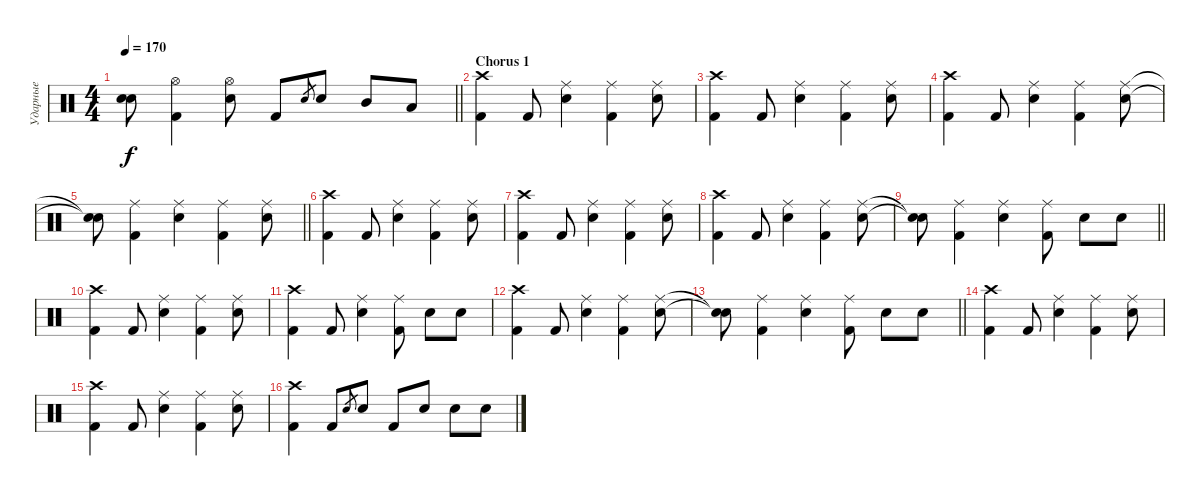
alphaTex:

\track ("Ударные" "Ударные") {instrument percussion}
\staff {score}
\articulation defaults
\ts (4 4)
\tempo 170
\clef neutral
\barLineRight lightlight
\ks c
("Snare (hit)"{t} "Snare (hit)"{t}).8{dy f} ("Hi-Hat (open)" "Kick (hit) 2").4 ("Hi-Hat (open)" "Snare (hit) 2").8 "Kick (hit) 2".8 "Snare (hit) 2".8{gr} "Snare (hit) 2".8 "Mid Tom (hit)".8 "Low Tom (hit)".8 |
\section ("" "Chorus 1")
("Crash high (hit)" "Kick (hit) 2").4 "Kick (hit) 2".8 ("Ride (middle)" "Snare (hit) 2").4 ("Ride (middle)" "Kick (hit) 2").4 ("Ride (middle)" "Snare (hit) 2").8 |
("Crash high (hit)" "Kick (hit) 2").4 "Kick (hit) 2".8 ("Ride (middle)" "Snare (hit) 2").4 ("Ride (middle)" "Kick (hit) 2").4 ("Ride (middle)" "Snare (hit) 2").8 |
("Crash high (hit)" "Kick (hit) 2").4 "Kick (hit) 2".8 ("Ride (middle)" "Snare (hit) 2").4 ("Ride (middle)" "Kick (hit) 2").4 ("Ride (middle)" "Snare (hit) 2").8 |
\barLineRight lightlight
("Snare (hit)"{t} "Snare (hit)"{t}).8 ("Ride (middle)" "Kick (hit) 2").4 ("Ride (middle)" "Snare (hit) 2").4 ("Ride (middle)" "Kick (hit) 2").4 ("Ride (middle)" "Snare (hit) 2").8 |
("Crash high (hit)" "Kick (hit) 2").4 "Kick (hit) 2".8 ("Ride (middle)" "Snare (hit) 2").4 ("Ride (middle)" "Kick (hit) 2").4 ("Ride (middle)" "Snare (hit) 2").8 |
("Crash high (hit)" "Kick (hit) 2").4 "Kick (hit) 2".8 ("Ride (middle)" "Snare (hit) 2").4 ("Ride (middle)" "Kick (hit) 2").4 ("Ride (middle)" "Snare (hit) 2").8 |
("Crash high (hit)" "Kick (hit) 2").4 "Kick (hit) 2".8 ("Ride (middle)" "Snare (hit) 2").4 ("Ride (middle)" "Kick (hit) 2").4 ("Ride (middle)" "Snare (hit) 2").8 |
\barLineRight lightlight
("Snare (hit)"{t} "Snare (hit)"{t}).8 ("Ride (middle)" "Kick (hit) 2").4 ("Ride (middle)" "Snare (hit) 2").4 ("Kick (hit) 2" "Ride (middle)").8 "Snare (hit) 2".8 "Snare (hit) 2".8 |
("Crash high (hit)" "Kick (hit) 2").4 "Kick (hit) 2".8 ("Ride (middle)" "Snare (hit) 2").4 ("Ride (middle)" "Kick (hit) 2").4 ("Ride (middle)" "Snare (hit) 2").8 |
("Crash high (hit)" "Kick (hit) 2").4 "Kick (hit) 2".8 ("Ride (middle)" "Snare (hit) 2").4 ("Ride (middle)" "Kick (hit) 2").8 "Snare (hit) 2".8 "Snare (hit) 2".8 |
("Crash high (hit)" "Kick (hit) 2").4 "Kick (hit) 2".8 ("Ride (middle)" "Snare (hit) 2").4 ("Ride (middle)" "Kick (hit) 2").4 ("Ride (middle)" "Snare (hit) 2").8 |
\barLineRight lightlight
("Snare (hit)"{t} "Snare (hit)"{t}).8 ("Ride (middle)" "Kick (hit) 2").4 ("Ride (middle)" "Snare (hit) 2").4 ("Ride (middle)" "Kick (hit) 2").8 "Snare (hit) 2".8 "Snare (hit) 2".8 |
("Crash high (hit)" "Kick (hit) 2").4 "Kick (hit) 2".8 ("Ride (middle)" "Snare (hit) 2").4 ("Ride (middle)" "Kick (hit) 2").4 ("Ride (middle)" "Snare (hit) 2").8 |
("Crash high (hit)" "Kick (hit) 2").4 "Kick (hit) 2".8 ("Ride (middle)" "Snare (hit) 2").4 ("Ride (middle)" "Kick (hit) 2").4 ("Ride (middle)" "Snare (hit) 2").8 |
("Crash high (hit)" "Kick (hit) 2").4 "Kick (hit) 2".8 "Snare (hit) 2".8{gr} "Snare (hit) 2".8 "Kick (hit) 2".8 "Snare (hit) 2".8 "Snare (hit) 2".8 "Snare (hit) 2".8
